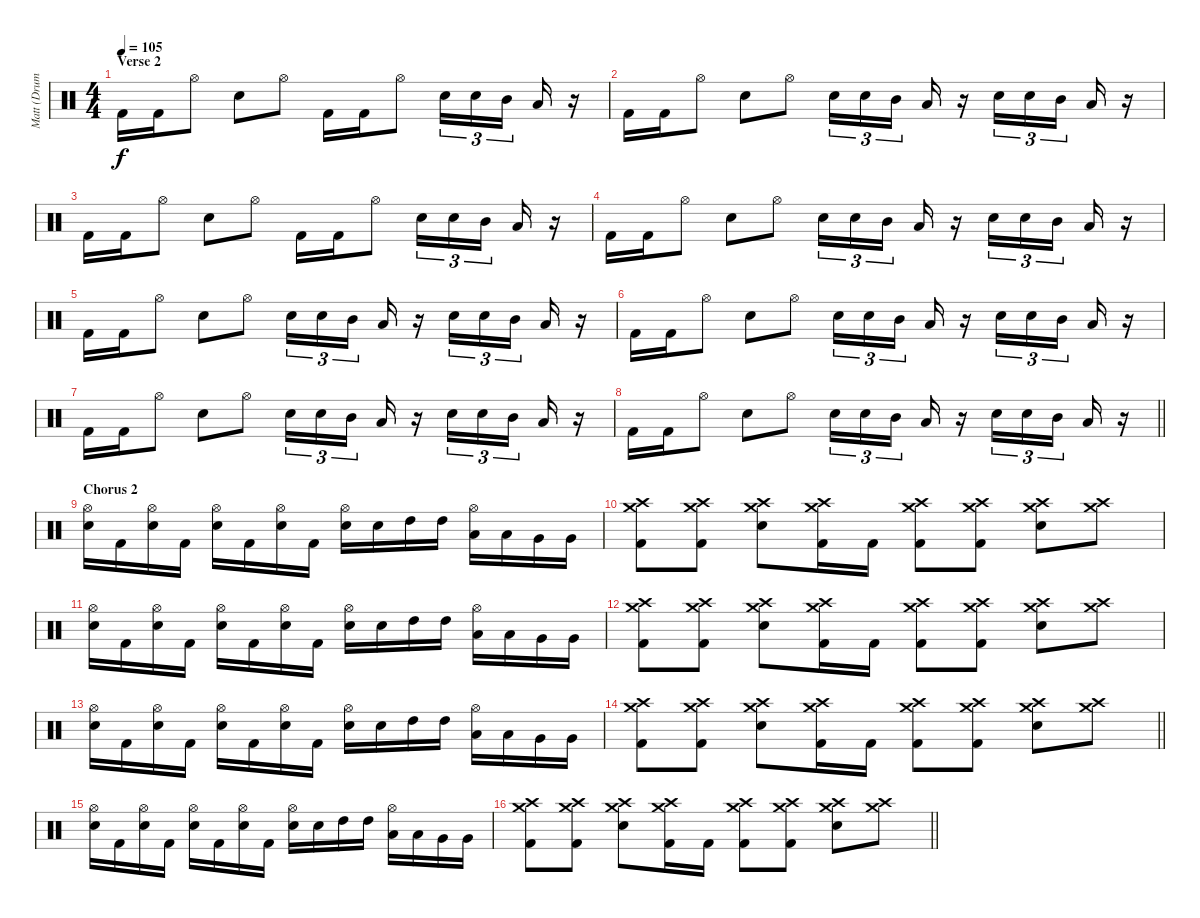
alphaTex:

\track ("Matt (Drums)" "Matt (Drum") {instrument percussion}
\staff {score}
\articulation defaults
\ts (4 4)
\section ("" "Verse 2")
\tempo 105
\clef neutral
\ks c "Kick (hit) 2".16{dy f} "Kick (hit) 2".16 "Hi-Hat (open)".8 "Electric Snare (hit)".8 "Hi-Hat (open)".8 "Kick (hit) 2".16 "Kick (hit) 2".16 "Hi-Hat (open)".8 "Electric Snare (hit)".16{tu (3 2)} "Electric Snare (hit)".16{tu (3 2)} "Mid Tom (hit)".16{tu (3 2) beam splitsecondary} "Low Tom (hit)".16
r.16 |
"Kick (hit) 2".16 "Kick (hit) 2".16 "Hi-Hat (open)".8 "Electric Snare (hit)".8 "Hi-Hat (open)".8 "Electric Snare (hit)".16{tu (3 2)} "Electric Snare (hit)".16{tu (3 2)} "Mid Tom (hit)".16{tu (3 2) beam splitsecondary} "Low Tom (hit)".16 r.16 "Electric Snare (hit)".16{tu (3 2)} "Electric Snare (hit)".16{tu (3 2)} "Mid Tom (hit)".16{tu (3 2) beam splitsecondary} "Low Tom (hit)".16 r.16 |
"Kick (hit) 2".16 "Kick (hit) 2".16 "Hi-Hat (open)".8 "Electric Snare (hit)".8 "Hi-Hat (open)".8 "Kick (hit) 2".16 "Kick (hit) 2".16 "Hi-Hat (open)".8 "Electric Snare (hit)".16{tu (3 2)} "Electric Snare (hit)".16{tu (3 2)} "Mid Tom (hit)".16{tu (3 2) beam splitsecondary} "Low Tom (hit)".16 r.16 |
"Kick (hit) 2".16 "Kick (hit) 2".16 "Hi-Hat (open)".8 "Electric Snare (hit)".8 "Hi-Hat (open)".8 "Electric Snare (hit)".16{tu (3 2)} "Electric Snare (hit)".16{tu (3 2)} "Mid Tom (hit)".16{tu (3 2) beam splitsecondary} "Low Tom (hit)".16 r.16 "Electric Snare (hit)".16{tu (3 2)} "Electric Snare (hit)".16{tu (3 2)} "Mid Tom (hit)".16{tu (3 2) beam splitsecondary} "Low Tom (hit)".16 r.16 |
"Kick (hit) 2".16 "Kick (hit) 2".16 "Hi-Hat (open)".8 "Electric Snare (hit)".8 "Hi-Hat (open)".8 "Electric Snare (hit)".16{tu (3 2)} "Electric Snare (hit)".16{tu (3 2)} "Mid Tom (hit)".16{tu (3 2) beam splitsecondary} "Low Tom (hit)".16 r.16 "Electric Snare (hit)".16{tu (3 2)} "Electric Snare (hit)".16{tu (3 2)} "Mid Tom (hit)".16{tu (3 2) beam splitsecondary} "Low Tom (hit)".16 r.16 |
"Kick (hit) 2".16 "Kick (hit) 2".16 "Hi-Hat (open)".8 "Electric Snare (hit)".8 "Hi-Hat (open)".8 "Electric Snare (hit)".16{tu (3 2)} "Electric Snare (hit)".16{tu (3 2)} "Mid Tom (hit)".16{tu (3 2) beam splitsecondary} "Low Tom (hit)".16 r.16 "Electric Snare (hit)".16{tu (3 2)} "Electric Snare (hit)".16{tu (3 2)} "Mid Tom (hit)".16{tu (3 2) beam splitsecondary} "Low Tom (hit)".16 r.16 |
"Kick (hit) 2".16 "Kick (hit) 2".16 "Hi-Hat (open)".8 "Electric Snare (hit)".8 "Hi-Hat (open)".8 "Electric Snare (hit)".16{tu (3 2)} "Electric Snare (hit)".16{tu (3 2)} "Mid Tom (hit)".16{tu (3 2) beam splitsecondary} "Low Tom (hit)".16 r.16 "Electric Snare (hit)".16{tu (3 2)} "Electric Snare (hit)".16{tu (3 2)} "Mid Tom (hit)".16{tu (3 2) beam splitsecondary} "Low Tom (hit)".16 r.16 |
\barLineRight lightlight "Kick (hit) 2".16 "Kick (hit) 2".16 "Hi-Hat (open)".8 "Electric Snare (hit)".8 "Hi-Hat (open)".8 "Electric Snare (hit)".16{tu (3 2)} "Electric Snare (hit)".16{tu (3 2)} "Mid Tom (hit)".16{tu (3 2) beam splitsecondary} "Low Tom (hit)".16
r.16 "Electric Snare (hit)".16{tu (3 2)} "Electric Snare (hit)".16{tu (3 2)} "Mid Tom (hit)".16{tu (3 2) beam splitsecondary} "Low Tom (hit)".16 r.16 |
\section ("" "Chorus 2")
("Hi-Hat (open)" "Electric Snare (hit)").16 "Kick (hit) 2".16 ("Hi-Hat (open)" "Electric Snare (hit)").16 "Kick (hit) 2".16 ("Hi-Hat (open)" "Electric Snare (hit)").16 "Kick (hit) 2".16 ("Hi-Hat (open)" "Electric Snare (hit)").16 "Kick (hit) 2".16 ("Hi-Hat (open)" "Electric Snare (hit)").16 "Electric Snare (hit)".16 "High Tom (hit)".16 "High Tom (hit)".16 ("Hi-Hat (open)" "Low Tom (hit)").16 "Low Tom (hit)".16 "Very Low Tom (hit)".16 "Very Low Tom (hit)".16 |
("Crash high (hit)" "Crash medium (hit)" "Kick (hit) 2").8 ("Crash high (hit)" "Crash medium (hit)" "Kick (hit) 2").8 ("Crash high (hit)" "Crash medium (hit)" "Electric Snare (hit)").8 ("Crash high (hit)" "Crash medium (hit)" "Kick (hit) 2").16 "Kick (hit) 2".16 ("Crash high (hit)" "Crash medium (hit)" "Kick (hit) 2").8 ("Crash high (hit)" "Crash medium (hit)" "Kick (hit) 2").8 ("Crash high (hit)" "Crash medium (hit)" "Electric Snare (hit)").8 ("Crash high (hit)" "Crash medium (hit)").8 |
("Hi-Hat (open)" "Electric Snare (hit)").16 "Kick (hit) 2".16 ("Hi-Hat (open)" "Electric Snare (hit)").16 "Kick (hit) 2".16 ("Hi-Hat (open)" "Electric Snare (hit)").16 "Kick (hit) 2".16 ("Hi-Hat (open)" "Electric Snare (hit)").16 "Kick (hit) 2".16 ("Hi-Hat (open)" "Electric Snare (hit)").16 "Electric Snare (hit)".16 "High Tom (hit)".16 "High Tom (hit)".16 ("Hi-Hat (open)" "Low Tom (hit)").16 "Low Tom (hit)".16 "Very Low Tom (hit)".16 "Very Low Tom (hit)".16 |
("Crash high (hit)" "Crash medium (hit)" "Kick (hit) 2").8 ("Crash high (hit)" "Crash medium (hit)" "Kick (hit) 2").8 ("Crash high (hit)" "Crash medium (hit)" "Electric Snare (hit)").8 ("Crash high (hit)" "Crash medium (hit)" "Kick (hit) 2").16 "Kick (hit) 2".16 ("Crash high (hit)" "Crash medium (hit)" "Kick (hit) 2").8 ("Crash high (hit)" "Crash medium (hit)" "Kick (hit) 2").8 ("Crash high (hit)" "Crash medium (hit)" "Electric Snare (hit)").8 ("Crash high (hit)" "Crash medium (hit)").8 |
("Hi-Hat (open)" "Electric Snare (hit)").16 "Kick (hit) 2".16 ("Hi-Hat (open)" "Electric Snare (hit)").16 "Kick (hit) 2".16 ("Hi-Hat (open)" "Electric Snare (hit)").16 "Kick (hit) 2".16 ("Hi-Hat (open)" "Electric Snare (hit)").16 "Kick (hit) 2".16 ("Hi-Hat (open)" "Electric Snare (hit)").16 "Electric Snare (hit)".16 "High Tom (hit)".16 "High Tom (hit)".16 ("Hi-Hat (open)" "Low Tom (hit)").16 "Low Tom (hit)".16 "Very Low Tom (hit)".16 "Very Low Tom (hit)".16 |
\barLineRight lightlight
("Crash high (hit)" "Crash medium (hit)" "Kick (hit) 2").8 ("Crash high (hit)" "Crash medium (hit)" "Kick (hit) 2").8 ("Crash high (hit)" "Crash medium (hit)" "Electric Snare (hit)").8 ("Crash high (hit)" "Crash medium (hit)" "Kick (hit) 2").16 "Kick (hit) 2".16 ("Crash high (hit)" "Crash medium (hit)" "Kick (hit) 2").8 ("Crash high (hit)" "Crash medium (hit)" "Kick (hit) 2").8 ("Crash high (hit)" "Crash medium (hit)" "Electric Snare (hit)").8 ("Crash high (hit)" "Crash medium (hit)").8 |
("Hi-Hat (open)" "Electric Snare (hit)").16 "Kick (hit) 2".16 ("Hi-Hat (open)" "Electric Snare (hit)").16 "Kick (hit) 2".16 ("Hi-Hat (open)" "Electric Snare (hit)").16 "Kick (hit) 2".16 ("Hi-Hat (open)" "Electric Snare (hit)").16 "Kick (hit) 2".16 ("Hi-Hat (open)" "Electric Snare (hit)").16 "Electric Snare (hit)".16 "High Tom (hit)".16 "High Tom (hit)".16 ("Hi-Hat (open)" "Low Tom (hit)").16 "Low Tom (hit)".16 "Very Low Tom (hit)".16 "Very Low Tom (hit)".16 |
\barLineRight lightlight
("Crash high (hit)" "Crash medium (hit)" "Kick (hit) 2").8 ("Crash high (hit)" "Crash medium (hit)" "Kick (hit) 2").8 ("Crash high (hit)" "Crash medium (hit)" "Electric Snare (hit)").8 ("Crash high (hit)" "Crash medium (hit)" "Kick (hit) 2").16 "Kick (hit) 2".16 ("Crash high (hit)" "Crash medium (hit)" "Kick (hit) 2").8 ("Crash high (hit)" "Crash medium (hit)" "Kick (hit) 2").8 ("Crash high (hit)" "Crash medium (hit)" "Electric Snare (hit)").8 ("Crash high (hit)" "Crash medium (hit)").8
